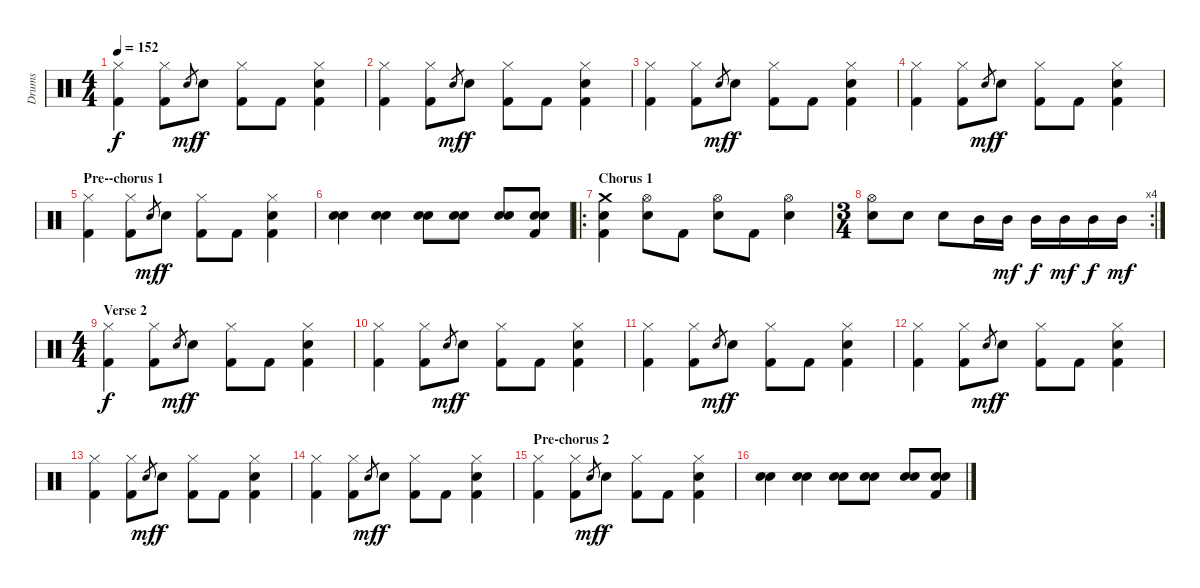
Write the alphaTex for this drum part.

\track ("Drums" "Drums") {instrument percussion}
\staff {score}
\articulation defaults
\ts (4 4)
\tempo 152
\clef neutral
\ks c
("Hi-Hat (closed)" "Kick (hit) 2").4{dy f} ("Hi-Hat (closed)" "Kick (hit) 2").8 "Electric Snare (hit)".8{gr dy mf} "Electric Snare (hit)".8{dy f} ("Hi-Hat (closed)" "Kick (hit) 2").8 "Kick (hit) 2".8 ("Hi-Hat (closed)" "Electric Snare (hit)" "Kick (hit) 2").4 |
("Hi-Hat (closed)" "Kick (hit) 2").4 ("Hi-Hat (closed)" "Kick (hit) 2").8 "Electric Snare (hit)".8{gr dy mf} "Electric Snare (hit)".8{dy f} ("Hi-Hat (closed)" "Kick (hit) 2").8 "Kick (hit) 2".8 ("Hi-Hat (closed)" "Electric Snare (hit)" "Kick (hit) 2").4 |
("Hi-Hat (closed)" "Kick (hit) 2").4 ("Hi-Hat (closed)" "Kick (hit) 2").8 "Electric Snare (hit)".8{gr dy mf} "Electric Snare (hit)".8{dy f} ("Hi-Hat (closed)" "Kick (hit) 2").8 "Kick (hit) 2".8 ("Hi-Hat (closed)" "Electric Snare (hit)" "Kick (hit) 2").4 |
("Hi-Hat (closed)" "Kick (hit) 2").4 ("Hi-Hat (closed)" "Kick (hit) 2").8 "Electric Snare (hit)".8{gr dy mf} "Electric Snare (hit)".8{dy f} ("Hi-Hat (closed)" "Kick (hit) 2").8 "Kick (hit) 2".8 ("Hi-Hat (closed)" "Electric Snare (hit)" "Kick (hit) 2").4 |
\section ("" "Pre--chorus 1")
("Hi-Hat (closed)" "Kick (hit) 2").4 ("Hi-Hat (closed)" "Kick (hit) 2").8 "Electric Snare (hit)".8{gr dy mf} "Electric Snare (hit)".8{dy f} ("Hi-Hat (closed)" "Kick (hit) 2").8 "Kick (hit) 2".8 ("Hi-Hat (closed)" "Electric Snare (hit)" "Kick (hit) 2").4 |
("Snare (hit) 2" "Electric Snare (hit)").4 ("Snare (hit) 2" "Electric Snare (hit)").4 ("Snare (hit) 2" "Electric Snare (hit)").8 ("Snare (hit) 2" "Electric Snare (hit)").8 ("Snare (hit) 2" "Electric Snare (hit)").8 ("Snare (hit) 2" "Electric Snare (hit)" "Kick (hit) 2").8 |
\ro
\section ("" "Chorus 1")
("Crash medium (hit)" "Electric Snare (hit)" "Kick (hit) 2").4 ("Hi-Hat (open)" "Electric Snare (hit)").8 "Kick (hit) 2".8 ("Hi-Hat (open)" "Electric Snare (hit)").8 "Kick (hit) 2".8 ("Hi-Hat (open)" "Electric Snare (hit)").4 |
\rc 4
\ts (3 4)
("Hi-Hat (open)" "Electric Snare (hit)").8 "Electric Snare (hit)".8 "Electric Snare (hit)".8 "Mid Tom (hit)".16 "Mid Tom (hit)".16{dy mf} "Mid Tom (hit)".16{dy f} "Mid Tom (hit)".16{dy mf} "Mid Tom (hit)".16{dy f} "Mid Tom (hit)".16{dy mf} |
\ts (4 4)
\section ("" "Verse 2")
("Hi-Hat (closed)" "Kick (hit) 2").4{dy f} ("Hi-Hat (closed)" "Kick (hit) 2").8 "Electric Snare (hit)".8{gr dy mf} "Electric Snare (hit)".8{dy f} ("Hi-Hat (closed)" "Kick (hit) 2").8 "Kick (hit) 2".8 ("Hi-Hat (closed)" "Electric Snare (hit)" "Kick (hit) 2").4 |
("Hi-Hat (closed)" "Kick (hit) 2").4 ("Hi-Hat (closed)" "Kick (hit) 2").8 "Electric Snare (hit)".8{gr dy mf} "Electric Snare (hit)".8{dy f} ("Hi-Hat (closed)" "Kick (hit) 2").8 "Kick (hit) 2".8 ("Hi-Hat (closed)" "Electric Snare (hit)" "Kick (hit) 2").4 |
("Hi-Hat (closed)" "Kick (hit) 2").4 ("Hi-Hat (closed)" "Kick (hit) 2").8 "Electric Snare (hit)".8{gr dy mf} "Electric Snare (hit)".8{dy f} ("Hi-Hat (closed)" "Kick (hit) 2").8 "Kick (hit) 2".8 ("Hi-Hat (closed)" "Electric Snare (hit)" "Kick (hit) 2").4 |
("Hi-Hat (closed)" "Kick (hit) 2").4 ("Hi-Hat (closed)" "Kick (hit) 2").8 "Electric Snare (hit)".8{gr dy mf} "Electric Snare (hit)".8{dy f} ("Hi-Hat (closed)" "Kick (hit) 2").8 "Kick (hit) 2".8 ("Hi-Hat (closed)" "Electric Snare (hit)" "Kick (hit) 2").4 |
("Hi-Hat (closed)" "Kick (hit) 2").4 ("Hi-Hat (closed)" "Kick (hit) 2").8 "Electric Snare (hit)".8{gr dy mf} "Electric Snare (hit)".8{dy f} ("Hi-Hat (closed)" "Kick (hit) 2").8 "Kick (hit) 2".8 ("Hi-Hat (closed)" "Electric Snare (hit)" "Kick (hit) 2").4 |
("Hi-Hat (closed)" "Kick (hit) 2").4 ("Hi-Hat (closed)" "Kick (hit) 2").8 "Electric Snare (hit)".8{gr dy mf} "Electric Snare (hit)".8{dy f} ("Hi-Hat (closed)" "Kick (hit) 2").8 "Kick (hit) 2".8 ("Hi-Hat (closed)" "Electric Snare (hit)" "Kick (hit) 2").4 |
\section ("" "Pre-chorus 2")
("Hi-Hat (closed)" "Kick (hit) 2").4 ("Hi-Hat (closed)" "Kick (hit) 2").8 "Electric Snare (hit)".8{gr dy mf} "Electric Snare (hit)".8{dy f} ("Hi-Hat (closed)" "Kick (hit) 2").8 "Kick (hit) 2".8 ("Hi-Hat (closed)" "Electric Snare (hit)" "Kick (hit) 2").4 |
("Snare (hit) 2" "Electric Snare (hit)").4 ("Snare (hit) 2" "Electric Snare (hit)").4 ("Snare (hit) 2" "Electric Snare (hit)").8 ("Snare (hit) 2" "Electric Snare (hit)").8 ("Snare (hit) 2" "Electric Snare (hit)").8 ("Snare (hit) 2" "Electric Snare (hit)" "Kick (hit) 2").8
